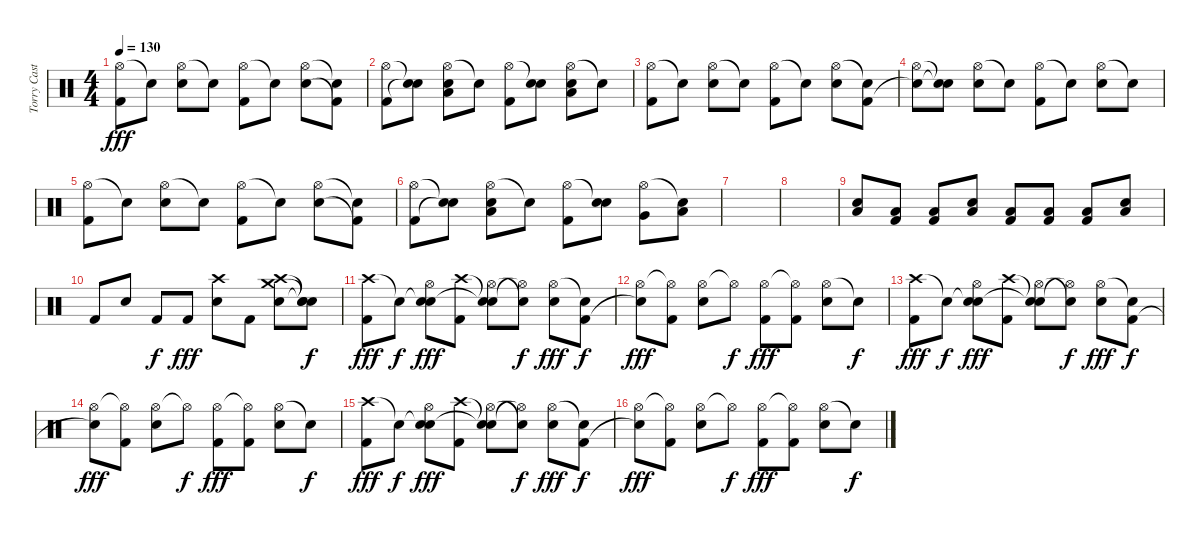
\track ("Torry Castellano" "Torry Cast") {instrument percussion}
\staff {score}
\articulation defaults
\ts (4 4)
\tempo 130
\clef neutral
\ks c
("Hi-Hat (open)" "Kick (hit) 2").8{dy fff} "Snare (hit)"{t}.8 ("Hi-Hat (open)" "Electric Snare (hit)").8 "Snare (hit)"{t}.8 ("Hi-Hat (open)" "Kick (hit) 2").8 "Snare (hit)"{t}.8 ("Hi-Hat (open)" "Electric Snare (hit)").8 ("Snare (hit)"{t} "Kick (hit) 2"{t}).8 |
("Hi-Hat (open)" "Kick (hit) 2").8 ("Snare (hit)"{t} "Electric Snare (hit)"{t}).8 ("Hi-Hat (open)" "Electric Snare (hit)" "Low Floor Tom (hit)").8 "Snare (hit)"{t}.8 ("Hi-Hat (open)" "Kick (hit) 2").8 ("Snare (hit)"{t} "Electric Snare (hit)").8 ("Hi-Hat (open)" "Electric Snare (hit)" "Low Floor Tom (hit)").8 "Snare (hit)"{t}.8 |
("Hi-Hat (open)" "Kick (hit) 2").8 "Snare (hit)"{t}.8 ("Hi-Hat (open)" "Electric Snare (hit)").8 "Snare (hit)"{t}.8 ("Hi-Hat (open)" "Kick (hit) 2").8 "Snare (hit)"{t}.8 ("Hi-Hat (open)" "Electric Snare (hit)").8 ("Snare (hit)"{t} "Kick (hit) 2").8 |
("Hi-Hat (open)" "Snare (hit)"{t}).8 ("Snare (hit)"{t} "Electric Snare (hit)"{t}).8 ("Hi-Hat (open)" "Electric Snare (hit)").8 "Snare (hit)"{t}.8 ("Hi-Hat (open)" "Kick (hit) 2").8 "Snare (hit)"{t}.8 ("Hi-Hat (open)" "Electric Snare (hit)").8 "Snare (hit)"{t}.8 |
("Hi-Hat (open)" "Kick (hit) 2").8 "Snare (hit)"{t}.8 ("Hi-Hat (open)" "Electric Snare (hit)").8 "Snare (hit)"{t}.8 ("Hi-Hat (open)" "Kick (hit) 2").8 "Snare (hit)"{t}.8 ("Hi-Hat (open)" "Electric Snare (hit)").8 ("Snare (hit)"{t} "Kick (hit) 2"{t}).8 |
("Hi-Hat (open)" "Kick (hit) 2").8 ("Snare (hit)"{t} "Electric Snare (hit)"{t}).8 ("Hi-Hat (open)" "Electric Snare (hit)" "Low Floor Tom (hit)").8 "Snare (hit)"{t}.8 ("Hi-Hat (open)" "Kick (hit) 2").8 ("Snare (hit)"{t} "Electric Snare (hit)").8 ("Hi-Hat (open)" "Very Low Tom (hit)").8 ("Snare (hit)"{t} "Low Floor Tom (hit)").8 |
|
|
("Low Floor Tom (hit)" "Electric Snare (hit)").8 ("Low Floor Tom (hit)" "Kick (hit) 2").8 ("Low Floor Tom (hit)" "Kick (hit) 2").8 ("Low Floor Tom (hit)" "Electric Snare (hit)").8 ("Low Floor Tom (hit)" "Kick (hit) 2").8 ("Low Floor Tom (hit)" "Kick (hit) 2").8 ("Low Floor Tom (hit)" "Kick (hit) 2").8 ("Low Floor Tom (hit)" "Electric Snare (hit)").8 |
"Kick (hit) 2".8 "Electric Snare (hit)".8 "Kick (hit) 2".8{dy f} "Kick (hit) 2".8{dy fff} ("Crash high (hit)" "Electric Snare (hit)").8 "Kick (hit) 2".8 ("Crash high (hit)" "Crash medium (hit)" "Electric Snare (hit)").8 ("Snare (hit)"{t} "Snare (hit)"{t} "Snare (hit)"{t}).8{dy f} |
("Crash high (hit)" "Kick (hit) 2").8{dy fff} "Snare (hit)"{t}.8{dy f} ("Snare (hit)"{t} "Hi-Hat (open)" "Electric Snare (hit)").8{dy fff} ("Crash high (hit)" "Kick (hit) 2").8 ("Snare (hit)"{t} "Hi-Hat (open)" "Snare (hit)"{t}).8 ("Hi-Hat (open)"{t} "Electric Snare (hit)"{t}).8{dy f} ("Hi-Hat (open)" "Electric Snare (hit)").8{dy fff} ("Snare (hit)"{t} "Kick (hit) 2").8{dy f} |
("Hi-Hat (open)" "Snare (hit)"{t}).8{dy fff} ("Hi-Hat (open)"{t} "Kick (hit) 2").8 ("Hi-Hat (open)" "Electric Snare (hit)").8 "Hi-Hat (open)"{t}.8{dy f} ("Hi-Hat (open)" "Kick (hit) 2").8{dy fff} ("Hi-Hat (open)"{t} "Kick (hit) 2").8 ("Hi-Hat (open)" "Electric Snare (hit)").8 "Snare (hit)"{t}.8{dy f} |
("Crash high (hit)" "Kick (hit) 2").8{dy fff} "Snare (hit)"{t}.8{dy f} ("Snare (hit)"{t} "Hi-Hat (open)" "Electric Snare (hit)").8{dy fff} ("Crash high (hit)" "Kick (hit) 2").8 ("Snare (hit)"{t} "Hi-Hat (open)" "Snare (hit)"{t}).8 ("Hi-Hat (open)"{t} "Electric Snare (hit)"{t}).8{dy f} ("Hi-Hat (open)" "Electric Snare (hit)").8{dy fff} ("Snare (hit)"{t} "Kick (hit) 2").8{dy f} |
("Hi-Hat (open)" "Snare (hit)"{t}).8{dy fff} ("Hi-Hat (open)"{t} "Kick (hit) 2").8 ("Hi-Hat (open)" "Electric Snare (hit)").8 "Hi-Hat (open)"{t}.8{dy f} ("Hi-Hat (open)" "Kick (hit) 2").8{dy fff} ("Hi-Hat (open)"{t} "Kick (hit) 2").8 ("Hi-Hat (open)" "Electric Snare (hit)").8 "Snare (hit)"{t}.8{dy f} |
("Crash high (hit)" "Kick (hit) 2").8{dy fff} "Snare (hit)"{t}.8{dy f} ("Snare (hit)"{t} "Hi-Hat (open)" "Electric Snare (hit)").8{dy fff} ("Crash high (hit)" "Kick (hit) 2").8 ("Snare (hit)"{t} "Hi-Hat (open)" "Snare (hit)"{t}).8 ("Hi-Hat (open)"{t} "Electric Snare (hit)"{t}).8{dy f} ("Hi-Hat (open)" "Electric Snare (hit)").8{dy fff} ("Snare (hit)"{t} "Kick (hit) 2").8{dy f} |
("Hi-Hat (open)" "Snare (hit)"{t}).8{dy fff} ("Hi-Hat (open)"{t} "Kick (hit) 2").8 ("Hi-Hat (open)" "Electric Snare (hit)").8 "Hi-Hat (open)"{t}.8{dy f} ("Hi-Hat (open)" "Kick (hit) 2").8{dy fff} ("Hi-Hat (open)"{t} "Kick (hit) 2").8 ("Hi-Hat (open)" "Electric Snare (hit)").8 "Snare (hit)"{t}.8{dy f}
